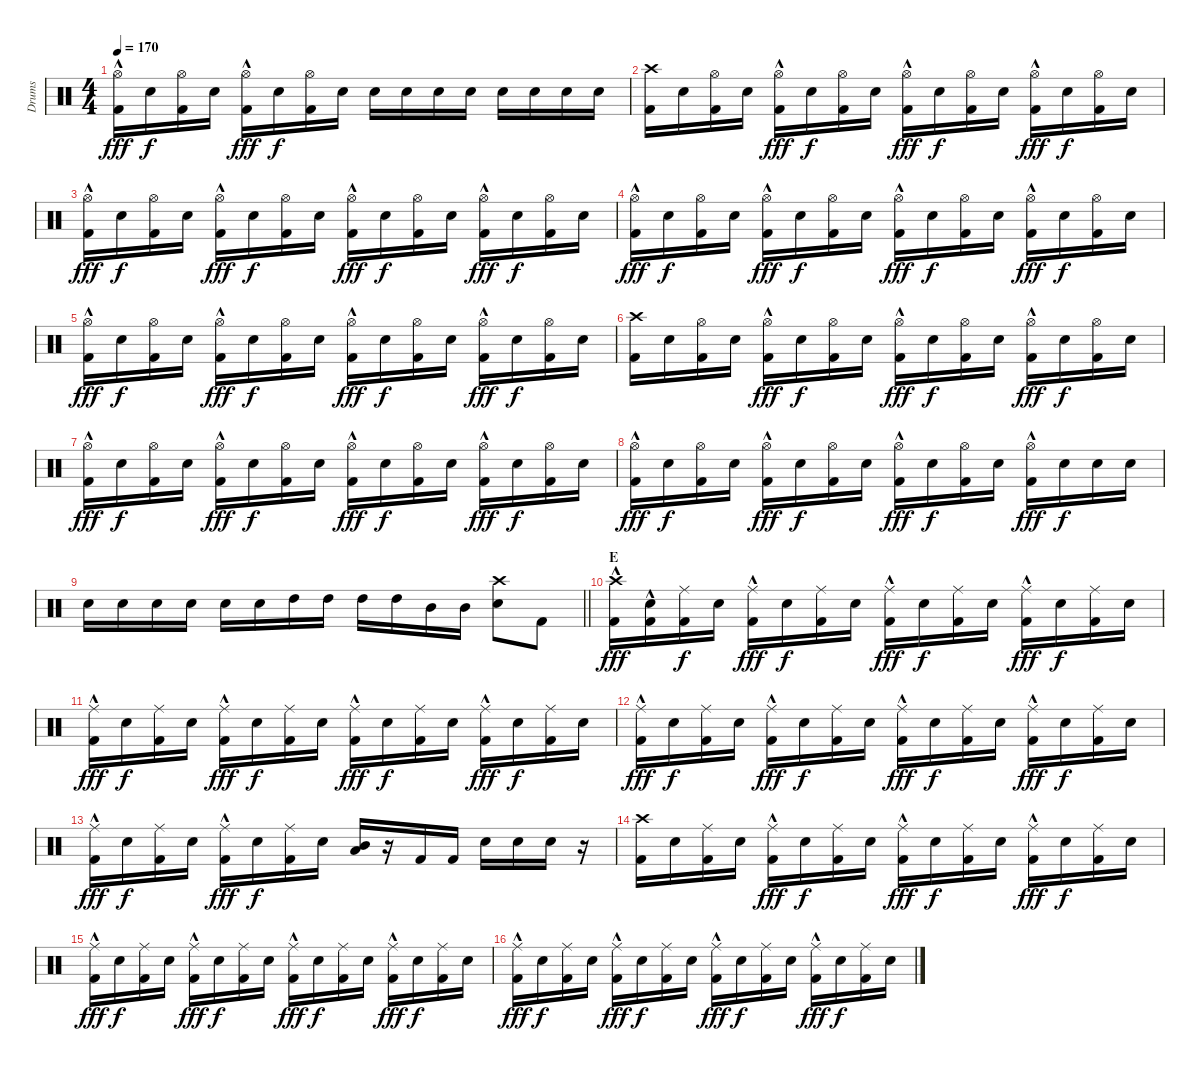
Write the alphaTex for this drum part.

\track ("Drums" "Drums") {instrument percussion}
\staff {score}
\articulation defaults
\ts (4 4)
\tempo 170
\clef neutral
\ks c
("Hi-Hat (open)"{hac} "Kick (hit) 2").16{dy fff} "Snare (hit) 2".16{dy f} ("Hi-Hat (open)" "Kick (hit) 2").16 "Snare (hit) 2".16 ("Hi-Hat (open)"{hac} "Kick (hit) 2").16{dy fff} "Snare (hit) 2".16{dy f} ("Hi-Hat (open)" "Kick (hit) 2").16 "Snare (hit) 2".16 "Snare (hit) 2".16 "Snare (hit) 2".16 "Snare (hit) 2".16 "Snare (hit) 2".16 "Snare (hit) 2".16 "Snare (hit) 2".16 "Snare (hit) 2".16 "Snare (hit) 2".16 |
("Crash high (hit)" "Kick (hit) 2").16 "Snare (hit) 2".16 ("Hi-Hat (open)" "Kick (hit) 2").16 "Snare (hit) 2".16 ("Hi-Hat (open)"{hac} "Kick (hit) 2").16{dy fff} "Snare (hit) 2".16{dy f} ("Hi-Hat (open)" "Kick (hit) 2").16 "Snare (hit) 2".16 ("Hi-Hat (open)"{hac} "Kick (hit) 2").16{dy fff} "Snare (hit) 2".16{dy f} ("Hi-Hat (open)" "Kick (hit) 2").16 "Snare (hit) 2".16 ("Hi-Hat (open)"{hac} "Kick (hit) 2").16{dy fff} "Snare (hit) 2".16{dy f} ("Hi-Hat (open)" "Kick (hit) 2").16 "Snare (hit) 2".16 |
("Hi-Hat (open)"{hac} "Kick (hit) 2").16{dy fff} "Snare (hit) 2".16{dy f} ("Hi-Hat (open)" "Kick (hit) 2").16 "Snare (hit) 2".16 ("Hi-Hat (open)"{hac} "Kick (hit) 2").16{dy fff} "Snare (hit) 2".16{dy f} ("Hi-Hat (open)" "Kick (hit) 2").16 "Snare (hit) 2".16 ("Hi-Hat (open)"{hac} "Kick (hit) 2").16{dy fff} "Snare (hit) 2".16{dy f} ("Hi-Hat (open)" "Kick (hit) 2").16 "Snare (hit) 2".16 ("Hi-Hat (open)"{hac} "Kick (hit) 2").16{dy fff} "Snare (hit) 2".16{dy f} ("Hi-Hat (open)" "Kick (hit) 2").16 "Snare (hit) 2".16 |
("Hi-Hat (open)"{hac} "Kick (hit) 2").16{dy fff} "Snare (hit) 2".16{dy f} ("Hi-Hat (open)" "Kick (hit) 2").16 "Snare (hit) 2".16 ("Hi-Hat (open)"{hac} "Kick (hit) 2").16{dy fff} "Snare (hit) 2".16{dy f} ("Hi-Hat (open)" "Kick (hit) 2").16 "Snare (hit) 2".16 ("Hi-Hat (open)"{hac} "Kick (hit) 2").16{dy fff} "Snare (hit) 2".16{dy f} ("Hi-Hat (open)" "Kick (hit) 2").16 "Snare (hit) 2".16 ("Hi-Hat (open)"{hac} "Kick (hit) 2").16{dy fff} "Snare (hit) 2".16{dy f} ("Hi-Hat (open)" "Kick (hit) 2").16 "Snare (hit) 2".16 |
("Hi-Hat (open)"{hac} "Kick (hit) 2").16{dy fff} "Snare (hit) 2".16{dy f} ("Hi-Hat (open)" "Kick (hit) 2").16 "Snare (hit) 2".16 ("Hi-Hat (open)"{hac} "Kick (hit) 2").16{dy fff} "Snare (hit) 2".16{dy f} ("Hi-Hat (open)" "Kick (hit) 2").16 "Snare (hit) 2".16 ("Hi-Hat (open)"{hac} "Kick (hit) 2").16{dy fff} "Snare (hit) 2".16{dy f} ("Hi-Hat (open)" "Kick (hit) 2").16 "Snare (hit) 2".16 ("Hi-Hat (open)"{hac} "Kick (hit) 2").16{dy fff} "Snare (hit) 2".16{dy f} ("Hi-Hat (open)" "Kick (hit) 2").16 "Snare (hit) 2".16 |
("Crash high (hit)" "Kick (hit) 2").16 "Snare (hit) 2".16 ("Hi-Hat (open)" "Kick (hit) 2").16 "Snare (hit) 2".16 ("Hi-Hat (open)"{hac} "Kick (hit) 2").16{dy fff} "Snare (hit) 2".16{dy f} ("Hi-Hat (open)" "Kick (hit) 2").16 "Snare (hit) 2".16 ("Hi-Hat (open)"{hac} "Kick (hit) 2").16{dy fff} "Snare (hit) 2".16{dy f} ("Hi-Hat (open)" "Kick (hit) 2").16 "Snare (hit) 2".16 ("Hi-Hat (open)"{hac} "Kick (hit) 2").16{dy fff} "Snare (hit) 2".16{dy f} ("Hi-Hat (open)" "Kick (hit) 2").16 "Snare (hit) 2".16 |
("Hi-Hat (open)"{hac} "Kick (hit) 2").16{dy fff} "Snare (hit) 2".16{dy f} ("Hi-Hat (open)" "Kick (hit) 2").16 "Snare (hit) 2".16 ("Hi-Hat (open)"{hac} "Kick (hit) 2").16{dy fff} "Snare (hit) 2".16{dy f} ("Hi-Hat (open)" "Kick (hit) 2").16 "Snare (hit) 2".16 ("Hi-Hat (open)"{hac} "Kick (hit) 2").16{dy fff} "Snare (hit) 2".16{dy f} ("Hi-Hat (open)" "Kick (hit) 2").16 "Snare (hit) 2".16 ("Hi-Hat (open)"{hac} "Kick (hit) 2").16{dy fff} "Snare (hit) 2".16{dy f} ("Hi-Hat (open)" "Kick (hit) 2").16 "Snare (hit) 2".16 |
("Hi-Hat (open)"{hac} "Kick (hit) 2").16{dy fff} "Snare (hit) 2".16{dy f} ("Hi-Hat (open)" "Kick (hit) 2").16 "Snare (hit) 2".16 ("Hi-Hat (open)"{hac} "Kick (hit) 2").16{dy fff} "Snare (hit) 2".16{dy f} ("Hi-Hat (open)" "Kick (hit) 2").16 "Snare (hit) 2".16 ("Hi-Hat (open)"{hac} "Kick (hit) 2").16{dy fff} "Snare (hit) 2".16{dy f} ("Hi-Hat (open)" "Kick (hit) 2").16 "Snare (hit) 2".16 ("Hi-Hat (open)"{hac} "Kick (hit) 2").16{dy fff} "Snare (hit) 2".16{dy f} "Snare (hit) 2".16 "Snare (hit) 2".16 |
\barLineRight lightlight "Snare (hit) 2".16 "Snare (hit) 2".16 "Snare (hit) 2".16 "Snare (hit) 2".16 "Snare (hit) 2".16 "Snare (hit) 2".16 "High Tom (hit)".16 "High Tom (hit)".16 "High Tom (hit)".16 "High Tom (hit)".16 "Mid Tom (hit)".16 "Mid Tom (hit)".16
("Crash high (hit)" "Snare (hit) 2").8 "Kick (hit) 2".8 |
\section ("" "E")
("Crash high (hit)" "Kick (hit) 2"{hac}).16{dy fff} ("Snare (hit) 2" "Kick (hit) 2"{hac}).16 ("Ride (middle)" "Kick (hit) 2").16{dy f} "Snare (hit) 2".16 ("Ride (middle)"{hac} "Kick (hit) 2").16{dy fff} "Snare (hit) 2".16{dy f} ("Ride (middle)" "Kick (hit) 2").16 "Snare (hit) 2".16 ("Ride (middle)"{hac} "Kick (hit) 2").16{dy fff} "Snare (hit) 2".16{dy f} ("Ride (middle)" "Kick (hit) 2").16 "Snare (hit) 2".16 ("Ride (middle)"{hac} "Kick (hit) 2").16{dy fff} "Snare (hit) 2".16{dy f} ("Ride (middle)" "Kick (hit) 2").16 "Snare (hit) 2".16 |
("Ride (middle)"{hac} "Kick (hit) 2").16{dy fff} "Snare (hit) 2".16{dy f} ("Ride (middle)" "Kick (hit) 2").16 "Snare (hit) 2".16 ("Ride (middle)"{hac} "Kick (hit) 2").16{dy fff} "Snare (hit) 2".16{dy f} ("Ride (middle)" "Kick (hit) 2").16 "Snare (hit) 2".16 ("Ride (middle)"{hac} "Kick (hit) 2").16{dy fff} "Snare (hit) 2".16{dy f} ("Ride (middle)" "Kick (hit) 2").16 "Snare (hit) 2".16 ("Ride (middle)"{hac} "Kick (hit) 2").16{dy fff} "Snare (hit) 2".16{dy f} ("Ride (middle)" "Kick (hit) 2").16 "Snare (hit) 2".16 |
("Ride (middle)"{hac} "Kick (hit) 2").16{dy fff} "Snare (hit) 2".16{dy f} ("Ride (middle)" "Kick (hit) 2").16 "Snare (hit) 2".16 ("Ride (middle)"{hac} "Kick (hit) 2").16{dy fff} "Snare (hit) 2".16{dy f} ("Ride (middle)" "Kick (hit) 2").16 "Snare (hit) 2".16 ("Ride (middle)"{hac} "Kick (hit) 2").16{dy fff} "Snare (hit) 2".16{dy f} ("Ride (middle)" "Kick (hit) 2").16 "Snare (hit) 2".16 ("Ride (middle)"{hac} "Kick (hit) 2").16{dy fff} "Snare (hit) 2".16{dy f} ("Ride (middle)" "Kick (hit) 2").16 "Snare (hit) 2".16 |
("Ride (middle)"{hac} "Kick (hit) 2").16{dy fff} "Snare (hit) 2".16{dy f} ("Ride (middle)" "Kick (hit) 2").16 "Snare (hit) 2".16 ("Ride (middle)"{hac} "Kick (hit) 2").16{dy fff} "Snare (hit) 2".16{dy f} ("Ride (middle)" "Kick (hit) 2").16 "Snare (hit) 2".16 ("Low Tom (hit)" "Mid Tom (hit)").16 r.16 "Kick (hit) 2".16 "Kick (hit) 2".16 "Snare (hit) 2".16 "Snare (hit) 2".16 "Snare (hit) 2".16 r.16 |
("Crash high (hit)" "Kick (hit) 2").16 "Snare (hit) 2".16 ("Ride (middle)" "Kick (hit) 2").16 "Snare (hit) 2".16 ("Ride (middle)"{hac} "Kick (hit) 2").16{dy fff} "Snare (hit) 2".16{dy f} ("Ride (middle)" "Kick (hit) 2").16 "Snare (hit) 2".16 ("Ride (middle)"{hac} "Kick (hit) 2").16{dy fff} "Snare (hit) 2".16{dy f} ("Ride (middle)" "Kick (hit) 2").16 "Snare (hit) 2".16 ("Ride (middle)"{hac} "Kick (hit) 2").16{dy fff} "Snare (hit) 2".16{dy f} ("Ride (middle)" "Kick (hit) 2").16 "Snare (hit) 2".16 |
("Ride (middle)"{hac} "Kick (hit) 2").16{dy fff} "Snare (hit) 2".16{dy f} ("Ride (middle)" "Kick (hit) 2").16 "Snare (hit) 2".16 ("Ride (middle)"{hac} "Kick (hit) 2").16{dy fff} "Snare (hit) 2".16{dy f} ("Ride (middle)" "Kick (hit) 2").16 "Snare (hit) 2".16 ("Ride (middle)"{hac} "Kick (hit) 2").16{dy fff} "Snare (hit) 2".16{dy f} ("Ride (middle)" "Kick (hit) 2").16 "Snare (hit) 2".16 ("Ride (middle)"{hac} "Kick (hit) 2").16{dy fff} "Snare (hit) 2".16{dy f} ("Ride (middle)" "Kick (hit) 2").16 "Snare (hit) 2".16 |
("Ride (middle)"{hac} "Kick (hit) 2").16{dy fff} "Snare (hit) 2".16{dy f} ("Ride (middle)" "Kick (hit) 2").16 "Snare (hit) 2".16 ("Ride (middle)"{hac} "Kick (hit) 2").16{dy fff} "Snare (hit) 2".16{dy f} ("Ride (middle)" "Kick (hit) 2").16 "Snare (hit) 2".16 ("Ride (middle)"{hac} "Kick (hit) 2").16{dy fff} "Snare (hit) 2".16{dy f} ("Ride (middle)" "Kick (hit) 2").16 "Snare (hit) 2".16 ("Ride (middle)"{hac} "Kick (hit) 2").16{dy fff} "Snare (hit) 2".16{dy f} ("Ride (middle)" "Kick (hit) 2").16 "Snare (hit) 2".16
